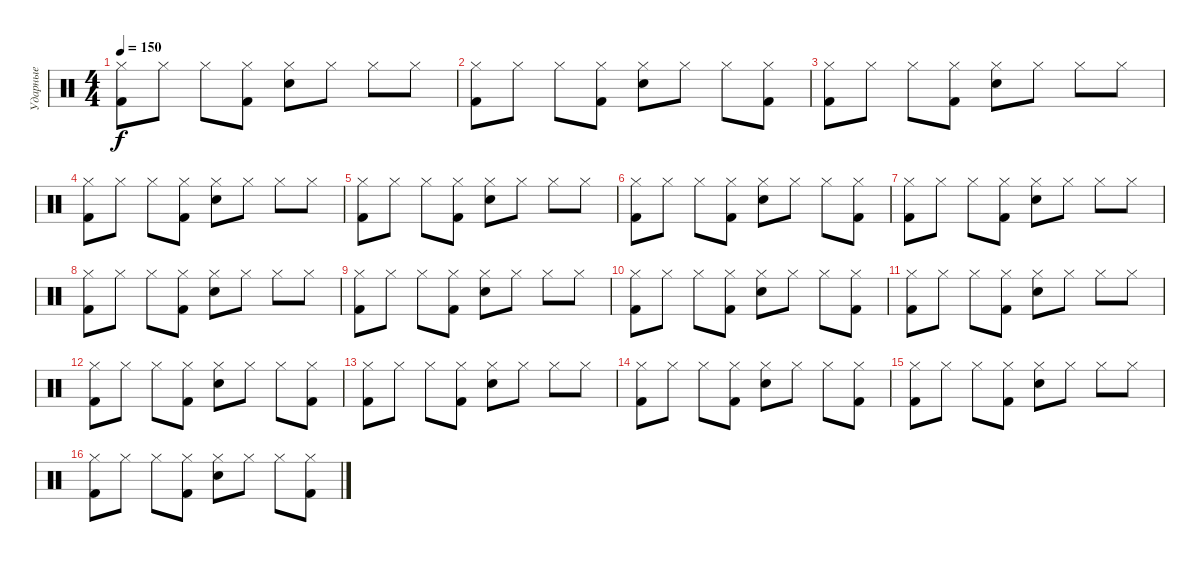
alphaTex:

\track ("Ударные" "Ударные") {instrument percussion}
\staff {score}
\articulation defaults
\ts (4 4)
\tempo 150
\clef neutral
\ks c
("Hi-Hat (closed)" "Kick (hit) 2").8{dy f} "Hi-Hat (closed)".8 "Hi-Hat (closed)".8 ("Hi-Hat (closed)" "Kick (hit) 2").8 ("Hi-Hat (closed)" "Electric Snare (hit)").8 "Hi-Hat (closed)".8 "Hi-Hat (closed)".8 "Hi-Hat (closed)".8 |
("Hi-Hat (closed)" "Kick (hit) 2").8 "Hi-Hat (closed)".8 "Hi-Hat (closed)".8 ("Hi-Hat (closed)" "Kick (hit) 2").8 ("Hi-Hat (closed)" "Electric Snare (hit)").8 "Hi-Hat (closed)".8 "Hi-Hat (closed)".8 ("Hi-Hat (closed)" "Kick (hit) 2").8 |
("Hi-Hat (closed)" "Kick (hit) 2").8 "Hi-Hat (closed)".8 "Hi-Hat (closed)".8 ("Hi-Hat (closed)" "Kick (hit) 2").8 ("Hi-Hat (closed)" "Electric Snare (hit)").8 "Hi-Hat (closed)".8 "Hi-Hat (closed)".8 "Hi-Hat (closed)".8 |
("Hi-Hat (closed)" "Kick (hit) 2").8 "Hi-Hat (closed)".8 "Hi-Hat (closed)".8 ("Hi-Hat (closed)" "Kick (hit) 2").8 ("Hi-Hat (closed)" "Electric Snare (hit)").8 "Hi-Hat (closed)".8 "Hi-Hat (closed)".8 "Hi-Hat (closed)".8 |
("Hi-Hat (closed)" "Kick (hit) 2").8 "Hi-Hat (closed)".8 "Hi-Hat (closed)".8 ("Hi-Hat (closed)" "Kick (hit) 2").8 ("Hi-Hat (closed)" "Electric Snare (hit)").8 "Hi-Hat (closed)".8 "Hi-Hat (closed)".8 "Hi-Hat (closed)".8 |
("Hi-Hat (closed)" "Kick (hit) 2").8 "Hi-Hat (closed)".8 "Hi-Hat (closed)".8 ("Hi-Hat (closed)" "Kick (hit) 2").8 ("Hi-Hat (closed)" "Electric Snare (hit)").8 "Hi-Hat (closed)".8 "Hi-Hat (closed)".8 ("Hi-Hat (closed)" "Kick (hit) 2").8 |
("Hi-Hat (closed)" "Kick (hit) 2").8 "Hi-Hat (closed)".8 "Hi-Hat (closed)".8 ("Hi-Hat (closed)" "Kick (hit) 2").8 ("Hi-Hat (closed)" "Electric Snare (hit)").8 "Hi-Hat (closed)".8 "Hi-Hat (closed)".8 "Hi-Hat (closed)".8 |
("Hi-Hat (closed)" "Kick (hit) 2").8 "Hi-Hat (closed)".8 "Hi-Hat (closed)".8 ("Hi-Hat (closed)" "Kick (hit) 2").8 ("Hi-Hat (closed)" "Electric Snare (hit)").8 "Hi-Hat (closed)".8 "Hi-Hat (closed)".8 "Hi-Hat (closed)".8 |
("Hi-Hat (closed)" "Kick (hit) 2").8 "Hi-Hat (closed)".8 "Hi-Hat (closed)".8 ("Hi-Hat (closed)" "Kick (hit) 2").8 ("Hi-Hat (closed)" "Electric Snare (hit)").8 "Hi-Hat (closed)".8 "Hi-Hat (closed)".8 "Hi-Hat (closed)".8 |
("Hi-Hat (closed)" "Kick (hit) 2").8 "Hi-Hat (closed)".8 "Hi-Hat (closed)".8 ("Hi-Hat (closed)" "Kick (hit) 2").8 ("Hi-Hat (closed)" "Electric Snare (hit)").8 "Hi-Hat (closed)".8 "Hi-Hat (closed)".8 ("Hi-Hat (closed)" "Kick (hit) 2").8 |
("Hi-Hat (closed)" "Kick (hit) 2").8 "Hi-Hat (closed)".8 "Hi-Hat (closed)".8 ("Hi-Hat (closed)" "Kick (hit) 2").8 ("Hi-Hat (closed)" "Electric Snare (hit)").8 "Hi-Hat (closed)".8 "Hi-Hat (closed)".8 "Hi-Hat (closed)".8 |
("Hi-Hat (closed)" "Kick (hit) 2").8 "Hi-Hat (closed)".8 "Hi-Hat (closed)".8 ("Hi-Hat (closed)" "Kick (hit) 2").8 ("Hi-Hat (closed)" "Electric Snare (hit)").8 "Hi-Hat (closed)".8 "Hi-Hat (closed)".8 ("Hi-Hat (closed)" "Kick (hit) 2").8 |
("Hi-Hat (closed)" "Kick (hit) 2").8 "Hi-Hat (closed)".8 "Hi-Hat (closed)".8 ("Hi-Hat (closed)" "Kick (hit) 2").8 ("Hi-Hat (closed)" "Electric Snare (hit)").8 "Hi-Hat (closed)".8 "Hi-Hat (closed)".8 "Hi-Hat (closed)".8 |
("Hi-Hat (closed)" "Kick (hit) 2").8 "Hi-Hat (closed)".8 "Hi-Hat (closed)".8 ("Hi-Hat (closed)" "Kick (hit) 2").8 ("Hi-Hat (closed)" "Electric Snare (hit)").8 "Hi-Hat (closed)".8 "Hi-Hat (closed)".8 ("Hi-Hat (closed)" "Kick (hit) 2").8 |
("Hi-Hat (closed)" "Kick (hit) 2").8 "Hi-Hat (closed)".8 "Hi-Hat (closed)".8 ("Hi-Hat (closed)" "Kick (hit) 2").8 ("Hi-Hat (closed)" "Electric Snare (hit)").8 "Hi-Hat (closed)".8 "Hi-Hat (closed)".8 "Hi-Hat (closed)".8 |
("Hi-Hat (closed)" "Kick (hit) 2").8 "Hi-Hat (closed)".8 "Hi-Hat (closed)".8 ("Hi-Hat (closed)" "Kick (hit) 2").8 ("Hi-Hat (closed)" "Electric Snare (hit)").8 "Hi-Hat (closed)".8 "Hi-Hat (closed)".8 ("Hi-Hat (closed)" "Kick (hit) 2").8
